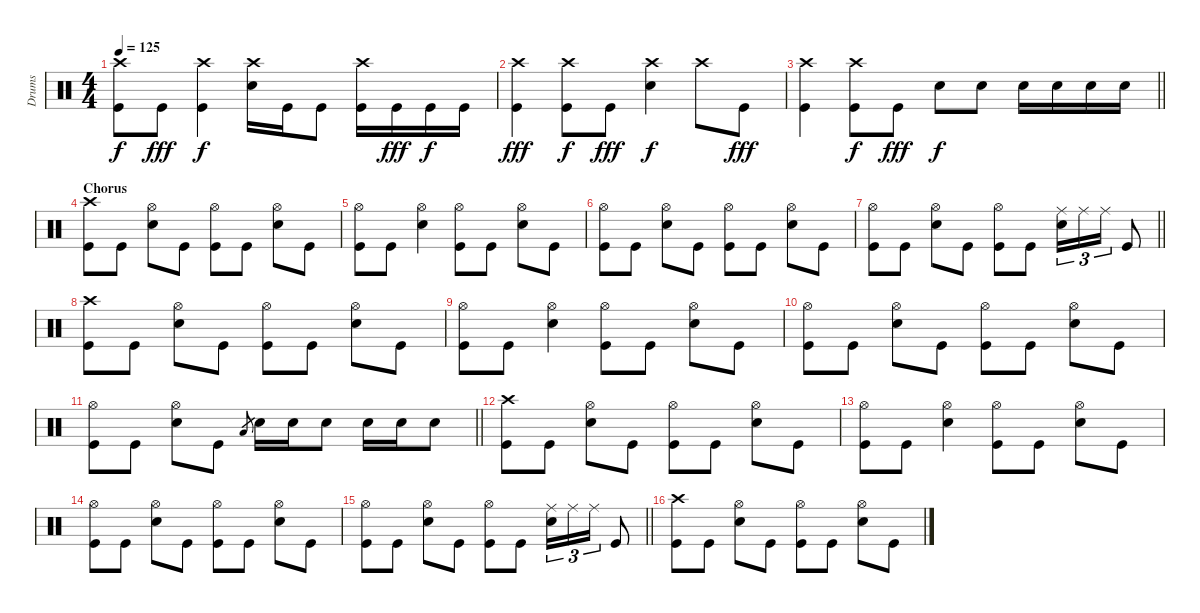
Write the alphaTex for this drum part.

\track ("Drums" "Drums") {instrument percussion}
\staff {score}
\articulation defaults
\ts (4 4)
\tempo 125
\clef neutral
\ks c
("Crash high (hit)" "Kick (hit)").8{dy f} "Kick (hit)".8{dy fff} ("Crash high (hit)" "Kick (hit)").4{dy f} ("Crash high (hit)" "Electric Snare (hit)").16 "Kick (hit)".16 "Kick (hit)".8 ("Crash high (hit)" "Kick (hit)").16 "Kick (hit)".16{dy fff} "Kick (hit)".16{dy f} "Kick (hit)".16 |
("Crash high (hit)" "Kick (hit)").4{dy fff} ("Crash high (hit)" "Kick (hit)").8{dy f} "Kick (hit)".8{dy fff} ("Crash high (hit)" "Electric Snare (hit)").4{dy f} "Crash high (hit)".8 "Kick (hit)".8{dy fff} |
\barLineRight lightlight
("Crash high (hit)" "Kick (hit)").4 ("Crash high (hit)" "Kick (hit)").8{dy f} "Kick (hit)".8{dy fff} "Electric Snare (hit)".8{dy f} "Electric Snare (hit)".8 "Electric Snare (hit)".16 "Electric Snare (hit)".16 "Electric Snare (hit)".16 "Electric Snare (hit)".16 |
\section ("" "Chorus ")
("Crash high (hit)" "Kick (hit)").8 "Kick (hit)".8 ("Hi-Hat (open)" "Electric Snare (hit)").8 "Kick (hit)".8 ("Hi-Hat (open)" "Kick (hit)").8 "Kick (hit)".8 ("Hi-Hat (open)" "Electric Snare (hit)").8 "Kick (hit)".8 |
("Hi-Hat (open)" "Kick (hit)").8 "Kick (hit)".8 ("Hi-Hat (open)" "Electric Snare (hit)").4 ("Hi-Hat (open)" "Kick (hit)").8 "Kick (hit)".8 ("Hi-Hat (open)" "Electric Snare (hit)").8 "Kick (hit)".8 |
("Hi-Hat (open)" "Kick (hit)").8 "Kick (hit)".8 ("Hi-Hat (open)" "Electric Snare (hit)").8 "Kick (hit)".8 ("Hi-Hat (open)" "Kick (hit)").8 "Kick (hit)".8 ("Hi-Hat (open)" "Electric Snare (hit)").8 "Kick (hit)".8 |
\barLineRight lightlight
("Hi-Hat (open)" "Kick (hit)").8 "Kick (hit)".8 ("Hi-Hat (open)" "Electric Snare (hit)").8 "Kick (hit)".8 ("Hi-Hat (open)" "Kick (hit)").8 "Kick (hit)".8 ("Ride (middle)" "Electric Snare (hit)").16{tu (3 2)} "Ride (middle)".16{tu (3 2)} "Ride (middle)".16{tu (3 2)} "Kick (hit)".8 |
("Crash high (hit)" "Kick (hit)").8 "Kick (hit)".8 ("Hi-Hat (open)" "Electric Snare (hit)").8 "Kick (hit)".8 ("Hi-Hat (open)" "Kick (hit)").8 "Kick (hit)".8 ("Hi-Hat (open)" "Electric Snare (hit)").8 "Kick (hit)".8 |
("Hi-Hat (open)" "Kick (hit)").8 "Kick (hit)".8 ("Hi-Hat (open)" "Electric Snare (hit)").4 ("Hi-Hat (open)" "Kick (hit)").8 "Kick (hit)".8 ("Hi-Hat (open)" "Electric Snare (hit)").8 "Kick (hit)".8 |
("Hi-Hat (open)" "Kick (hit)").8 "Kick (hit)".8 ("Hi-Hat (open)" "Electric Snare (hit)").8 "Kick (hit)".8 ("Hi-Hat (open)" "Kick (hit)").8 "Kick (hit)".8 ("Hi-Hat (open)" "Electric Snare (hit)").8 "Kick (hit)".8 |
\barLineRight lightlight
("Hi-Hat (open)" "Kick (hit)").8 "Kick (hit)".8 ("Hi-Hat (open)" "Electric Snare (hit)").8 "Kick (hit)".8 "Low Floor Tom (hit)".8{gr} "Electric Snare (hit)".16 "Electric Snare (hit)".16 "Electric Snare (hit)".8 "Electric Snare (hit)".16 "Electric Snare (hit)".16 "Electric Snare (hit)".8 |
("Crash high (hit)" "Kick (hit)").8 "Kick (hit)".8 ("Hi-Hat (open)" "Electric Snare (hit)").8 "Kick (hit)".8 ("Hi-Hat (open)" "Kick (hit)").8 "Kick (hit)".8 ("Hi-Hat (open)" "Electric Snare (hit)").8 "Kick (hit)".8 |
("Hi-Hat (open)" "Kick (hit)").8 "Kick (hit)".8 ("Hi-Hat (open)" "Electric Snare (hit)").4 ("Hi-Hat (open)" "Kick (hit)").8 "Kick (hit)".8 ("Hi-Hat (open)" "Electric Snare (hit)").8 "Kick (hit)".8 |
("Hi-Hat (open)" "Kick (hit)").8 "Kick (hit)".8 ("Hi-Hat (open)" "Electric Snare (hit)").8 "Kick (hit)".8 ("Hi-Hat (open)" "Kick (hit)").8 "Kick (hit)".8 ("Hi-Hat (open)" "Electric Snare (hit)").8 "Kick (hit)".8 |
\barLineRight lightlight
("Hi-Hat (open)" "Kick (hit)").8 "Kick (hit)".8 ("Hi-Hat (open)" "Electric Snare (hit)").8 "Kick (hit)".8 ("Hi-Hat (open)" "Kick (hit)").8 "Kick (hit)".8 ("Ride (middle)" "Electric Snare (hit)").16{tu (3 2)} "Ride (middle)".16{tu (3 2)} "Ride (middle)".16{tu (3 2)} "Kick (hit)".8 |
("Crash high (hit)" "Kick (hit)").8 "Kick (hit)".8 ("Hi-Hat (open)" "Electric Snare (hit)").8 "Kick (hit)".8 ("Hi-Hat (open)" "Kick (hit)").8 "Kick (hit)".8 ("Hi-Hat (open)" "Electric Snare (hit)").8 "Kick (hit)".8
